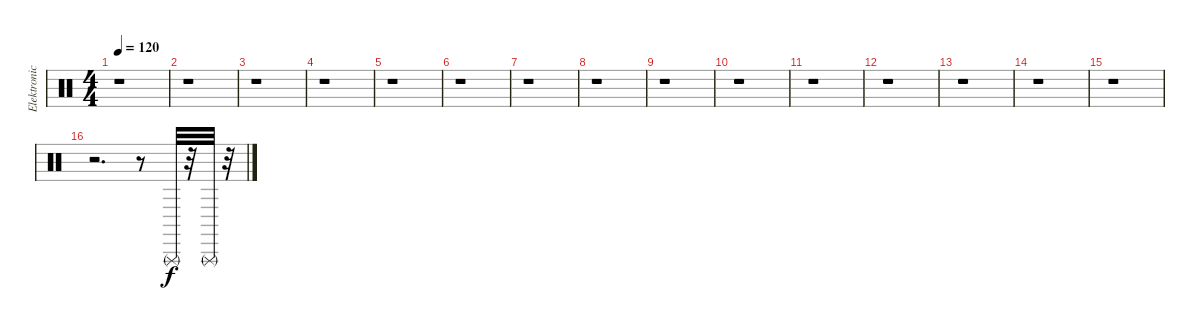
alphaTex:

\track ("Elektronické bicí 1" "Elektronic") {instrument percussion}
\staff {score}
\articulation defaults
\ts (4 4)
\tempo 120
\clef neutral
\ks c
r.1{dy f} |
r.1 |
r.1 |
r.1 |
r.1 |
r.1 |
r.1 |
r.1 |
r.1 |
r.1 |
r.1 |
r.1 |
r.1 |
r.1 |
r.1 |
r.2{d} r.8 "Triangle (rnute)".32 r.32 "Triangle (rnute)".32 r.32
